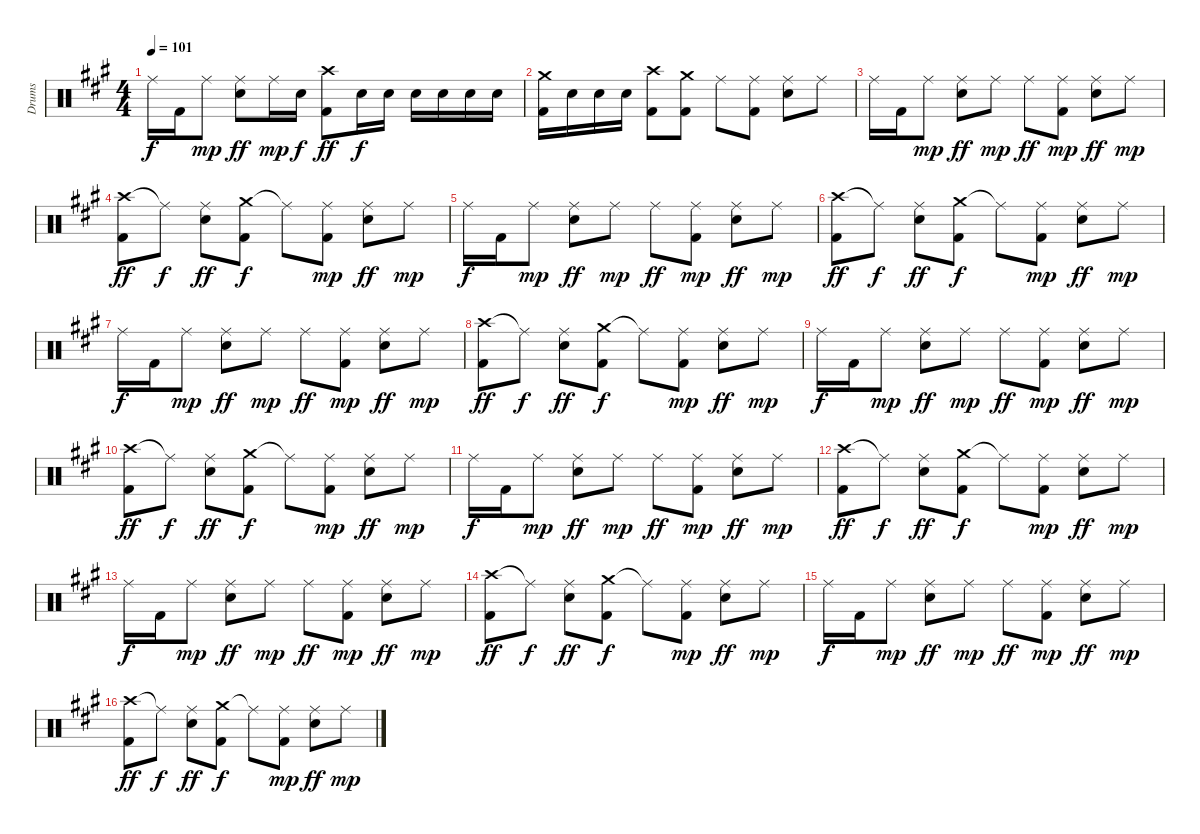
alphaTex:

\track ("Drums" "Drums") {instrument percussion}
\staff {score}
\articulation defaults
\ts (4 4)
\tempo 101
\clef neutral
\ks a "Ride (middle)".16{dy f} "Kick (hit) 2".16 "Ride (middle)".8{dy mp}
("Ride (middle)" "Electric Snare (hit)").8{dy ff} "Ride (middle)".16{dy mp} "Electric Snare (hit)".16{dy f} ("Crash high (hit)" "Kick (hit) 2").8{dy ff} "Electric Snare (hit)".16{dy f} "Electric Snare (hit)".16 "Electric Snare (hit)".16 "Electric Snare (hit)".16 "Electric Snare (hit)".16 "Electric Snare (hit)".16 |
("Crash medium (hit)" "Kick (hit) 2").16 "Electric Snare (hit)".16 "Electric Snare (hit)".16 "Electric Snare (hit)".16 ("Crash high (hit)" "Kick (hit) 2").8 ("Crash medium (hit)" "Kick (hit) 2").8 "Ride (middle)".8 ("Ride (middle)" "Kick (hit) 2").8 ("Ride (middle)" "Electric Snare (hit)").8 "Ride (middle)".8 |
"Ride (middle)".16 "Kick (hit) 2".16 "Ride (middle)".8{dy mp} ("Ride (middle)" "Electric Snare (hit)").8{dy ff} "Ride (middle)".8{dy mp} "Ride (middle)".8{dy ff} ("Ride (middle)" "Kick (hit) 2").8{dy mp} ("Ride (middle)" "Electric Snare (hit)").8{dy ff} "Ride (middle)".8{dy mp} |
("Crash high (hit)" "Kick (hit) 2").8{dy ff} "Ride (middle)"{t}.8{dy f} ("Ride (middle)" "Electric Snare (hit)").8{dy ff} ("Crash medium (hit)" "Kick (hit) 2").8{dy f} "Ride (middle)"{t}.8 ("Ride (middle)" "Kick (hit) 2").8{dy mp} ("Ride (middle)" "Electric Snare (hit)").8{dy ff} "Ride (middle)".8{dy mp} |
"Ride (middle)".16{dy f} "Kick (hit) 2".16 "Ride (middle)".8{dy mp} ("Ride (middle)" "Electric Snare (hit)").8{dy ff} "Ride (middle)".8{dy mp} "Ride (middle)".8{dy ff} ("Ride (middle)" "Kick (hit) 2").8{dy mp} ("Ride (middle)" "Electric Snare (hit)").8{dy ff} "Ride (middle)".8{dy mp} |
("Crash high (hit)" "Kick (hit) 2").8{dy ff} "Ride (middle)"{t}.8{dy f} ("Ride (middle)" "Electric Snare (hit)").8{dy ff} ("Crash medium (hit)" "Kick (hit) 2").8{dy f} "Ride (middle)"{t}.8 ("Ride (middle)" "Kick (hit) 2").8{dy mp} ("Ride (middle)" "Electric Snare (hit)").8{dy ff} "Ride (middle)".8{dy mp} |
"Ride (middle)".16{dy f} "Kick (hit) 2".16 "Ride (middle)".8{dy mp} ("Ride (middle)" "Electric Snare (hit)").8{dy ff} "Ride (middle)".8{dy mp} "Ride (middle)".8{dy ff} ("Ride (middle)" "Kick (hit) 2").8{dy mp} ("Ride (middle)" "Electric Snare (hit)").8{dy ff} "Ride (middle)".8{dy mp} |
("Crash high (hit)" "Kick (hit) 2").8{dy ff} "Ride (middle)"{t}.8{dy f} ("Ride (middle)" "Electric Snare (hit)").8{dy ff} ("Crash medium (hit)" "Kick (hit) 2").8{dy f} "Ride (middle)"{t}.8 ("Ride (middle)" "Kick (hit) 2").8{dy mp} ("Ride (middle)" "Electric Snare (hit)").8{dy ff} "Ride (middle)".8{dy mp} |
"Ride (middle)".16{dy f} "Kick (hit) 2".16 "Ride (middle)".8{dy mp} ("Ride (middle)" "Electric Snare (hit)").8{dy ff} "Ride (middle)".8{dy mp} "Ride (middle)".8{dy ff} ("Ride (middle)" "Kick (hit) 2").8{dy mp} ("Ride (middle)" "Electric Snare (hit)").8{dy ff} "Ride (middle)".8{dy mp} |
("Crash high (hit)" "Kick (hit) 2").8{dy ff} "Ride (middle)"{t}.8{dy f} ("Ride (middle)" "Electric Snare (hit)").8{dy ff} ("Crash medium (hit)" "Kick (hit) 2").8{dy f} "Ride (middle)"{t}.8 ("Ride (middle)" "Kick (hit) 2").8{dy mp} ("Ride (middle)" "Electric Snare (hit)").8{dy ff} "Ride (middle)".8{dy mp} |
"Ride (middle)".16{dy f} "Kick (hit) 2".16 "Ride (middle)".8{dy mp} ("Ride (middle)" "Electric Snare (hit)").8{dy ff} "Ride (middle)".8{dy mp} "Ride (middle)".8{dy ff} ("Ride (middle)" "Kick (hit) 2").8{dy mp} ("Ride (middle)" "Electric Snare (hit)").8{dy ff} "Ride (middle)".8{dy mp} |
("Crash high (hit)" "Kick (hit) 2").8{dy ff} "Ride (middle)"{t}.8{dy f} ("Ride (middle)" "Electric Snare (hit)").8{dy ff} ("Crash medium (hit)" "Kick (hit) 2").8{dy f} "Ride (middle)"{t}.8 ("Ride (middle)" "Kick (hit) 2").8{dy mp} ("Ride (middle)" "Electric Snare (hit)").8{dy ff} "Ride (middle)".8{dy mp} |
"Ride (middle)".16{dy f} "Kick (hit) 2".16 "Ride (middle)".8{dy mp} ("Ride (middle)" "Electric Snare (hit)").8{dy ff} "Ride (middle)".8{dy mp} "Ride (middle)".8{dy ff} ("Ride (middle)" "Kick (hit) 2").8{dy mp} ("Ride (middle)" "Electric Snare (hit)").8{dy ff} "Ride (middle)".8{dy mp} |
("Crash high (hit)" "Kick (hit) 2").8{dy ff} "Ride (middle)"{t}.8{dy f} ("Ride (middle)" "Electric Snare (hit)").8{dy ff} ("Crash medium (hit)" "Kick (hit) 2").8{dy f} "Ride (middle)"{t}.8 ("Ride (middle)" "Kick (hit) 2").8{dy mp} ("Ride (middle)" "Electric Snare (hit)").8{dy ff} "Ride (middle)".8{dy mp} |
"Ride (middle)".16{dy f} "Kick (hit) 2".16 "Ride (middle)".8{dy mp} ("Ride (middle)" "Electric Snare (hit)").8{dy ff} "Ride (middle)".8{dy mp} "Ride (middle)".8{dy ff} ("Ride (middle)" "Kick (hit) 2").8{dy mp} ("Ride (middle)" "Electric Snare (hit)").8{dy ff} "Ride (middle)".8{dy mp} |
("Crash high (hit)" "Kick (hit) 2").8{dy ff} "Ride (middle)"{t}.8{dy f} ("Ride (middle)" "Electric Snare (hit)").8{dy ff} ("Crash medium (hit)" "Kick (hit) 2").8{dy f} "Ride (middle)"{t}.8 ("Ride (middle)" "Kick (hit) 2").8{dy mp} ("Ride (middle)" "Electric Snare (hit)").8{dy ff} "Ride (middle)".8{dy mp}
